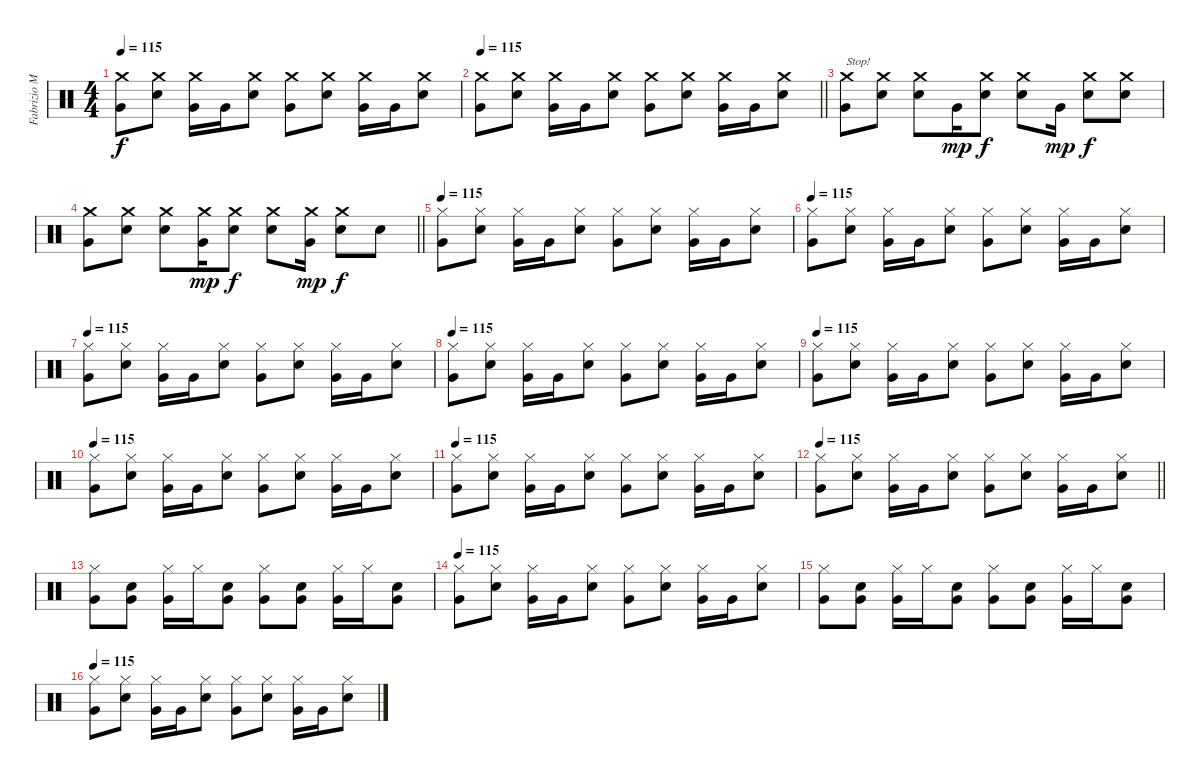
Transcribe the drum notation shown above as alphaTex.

\track ("Fabrizio Moretti" "Fabrizio M") {instrument percussion}
\staff {score}
\articulation defaults
\ts (4 4)
\tempo 115
\clef neutral
\ks c
("Very Low Tom (hit)" "Crash medium (hit)").8{dy f} ("Electric Snare (hit)" "Crash medium (hit)").8 ("Very Low Tom (hit)" "Crash medium (hit)").16 "Very Low Tom (hit)".16 ("Electric Snare (hit)" "Crash medium (hit)").8 ("Very Low Tom (hit)" "Crash medium (hit)").8 ("Electric Snare (hit)" "Crash medium (hit)").8 ("Very Low Tom (hit)" "Crash medium (hit)").16 "Very Low Tom (hit)".16 ("Electric Snare (hit)" "Crash medium (hit)").8 |
\tempo 115
\barLineRight lightlight
("Very Low Tom (hit)" "Crash medium (hit)").8 ("Electric Snare (hit)" "Crash medium (hit)").8 ("Very Low Tom (hit)" "Crash medium (hit)").16 "Very Low Tom (hit)".16 ("Electric Snare (hit)" "Crash medium (hit)").8 ("Very Low Tom (hit)" "Crash medium (hit)").8 ("Electric Snare (hit)" "Crash medium (hit)").8 ("Very Low Tom (hit)" "Crash medium (hit)").16 "Very Low Tom (hit)".16 ("Electric Snare (hit)" "Crash medium (hit)").8 |
("Very Low Tom (hit)" "Crash medium (hit)").8{txt "Stop!"} ("Electric Snare (hit)" "Crash medium (hit)").8 ("Electric Snare (hit)" "Crash medium (hit)").8 "Very Low Tom (hit)".16{dy mp} ("Electric Snare (hit)" "Crash medium (hit)").8{dy f} ("Electric Snare (hit)" "Crash medium (hit)").8 "Very Low Tom (hit)".16{dy mp} ("Electric Snare (hit)" "Crash medium (hit)").8{dy f} ("Electric Snare (hit)" "Crash medium (hit)").8 |
\barLineRight lightlight
("Very Low Tom (hit)" "Crash medium (hit)").8 ("Electric Snare (hit)" "Crash medium (hit)").8 ("Electric Snare (hit)" "Crash medium (hit)").8 ("Very Low Tom (hit)" "Crash medium (hit)").16{dy mp} ("Electric Snare (hit)" "Crash medium (hit)").8{dy f} ("Electric Snare (hit)" "Crash medium (hit)").8 ("Very Low Tom (hit)" "Crash medium (hit)").16{dy mp} ("Electric Snare (hit)" "Crash medium (hit)").8{dy f} "Electric Snare (hit)".8 |
\tempo 115
("Very Low Tom (hit)" "Hi-Hat (closed)").8 ("Electric Snare (hit)" "Hi-Hat (closed)").8 ("Very Low Tom (hit)" "Hi-Hat (closed)").16 "Very Low Tom (hit)".16 ("Electric Snare (hit)" "Hi-Hat (closed)").8 ("Very Low Tom (hit)" "Hi-Hat (closed)").8 ("Electric Snare (hit)" "Hi-Hat (closed)").8 ("Very Low Tom (hit)" "Hi-Hat (closed)").16 "Very Low Tom (hit)".16 ("Electric Snare (hit)" "Hi-Hat (closed)").8 |
\tempo 115
("Very Low Tom (hit)" "Hi-Hat (closed)").8 ("Electric Snare (hit)" "Hi-Hat (closed)").8 ("Very Low Tom (hit)" "Hi-Hat (closed)").16 "Very Low Tom (hit)".16 ("Electric Snare (hit)" "Hi-Hat (closed)").8 ("Very Low Tom (hit)" "Hi-Hat (closed)").8 ("Electric Snare (hit)" "Hi-Hat (closed)").8 ("Very Low Tom (hit)" "Hi-Hat (closed)").16 "Very Low Tom (hit)".16 ("Electric Snare (hit)" "Hi-Hat (closed)").8 |
\tempo 115
("Very Low Tom (hit)" "Hi-Hat (closed)").8 ("Electric Snare (hit)" "Hi-Hat (closed)").8 ("Very Low Tom (hit)" "Hi-Hat (closed)").16 "Very Low Tom (hit)".16 ("Electric Snare (hit)" "Hi-Hat (closed)").8 ("Very Low Tom (hit)" "Hi-Hat (closed)").8 ("Electric Snare (hit)" "Hi-Hat (closed)").8 ("Very Low Tom (hit)" "Hi-Hat (closed)").16 "Very Low Tom (hit)".16 ("Electric Snare (hit)" "Hi-Hat (closed)").8 |
\tempo 115
("Very Low Tom (hit)" "Hi-Hat (closed)").8 ("Electric Snare (hit)" "Hi-Hat (closed)").8 ("Very Low Tom (hit)" "Hi-Hat (closed)").16 "Very Low Tom (hit)".16 ("Electric Snare (hit)" "Hi-Hat (closed)").8 ("Very Low Tom (hit)" "Hi-Hat (closed)").8 ("Electric Snare (hit)" "Hi-Hat (closed)").8 ("Very Low Tom (hit)" "Hi-Hat (closed)").16 "Very Low Tom (hit)".16 ("Electric Snare (hit)" "Hi-Hat (closed)").8 |
\tempo 115
("Very Low Tom (hit)" "Hi-Hat (closed)").8 ("Electric Snare (hit)" "Hi-Hat (closed)").8 ("Very Low Tom (hit)" "Hi-Hat (closed)").16 "Very Low Tom (hit)".16 ("Electric Snare (hit)" "Hi-Hat (closed)").8 ("Very Low Tom (hit)" "Hi-Hat (closed)").8 ("Electric Snare (hit)" "Hi-Hat (closed)").8 ("Very Low Tom (hit)" "Hi-Hat (closed)").16 "Very Low Tom (hit)".16 ("Electric Snare (hit)" "Hi-Hat (closed)").8 |
\tempo 115
("Very Low Tom (hit)" "Hi-Hat (closed)").8 ("Electric Snare (hit)" "Hi-Hat (closed)").8 ("Very Low Tom (hit)" "Hi-Hat (closed)").16 "Very Low Tom (hit)".16 ("Electric Snare (hit)" "Hi-Hat (closed)").8 ("Very Low Tom (hit)" "Hi-Hat (closed)").8 ("Electric Snare (hit)" "Hi-Hat (closed)").8 ("Very Low Tom (hit)" "Hi-Hat (closed)").16 "Very Low Tom (hit)".16 ("Electric Snare (hit)" "Hi-Hat (closed)").8 |
\tempo 115
("Very Low Tom (hit)" "Hi-Hat (closed)").8 ("Electric Snare (hit)" "Hi-Hat (closed)").8 ("Very Low Tom (hit)" "Hi-Hat (closed)").16 "Very Low Tom (hit)".16 ("Electric Snare (hit)" "Hi-Hat (closed)").8 ("Very Low Tom (hit)" "Hi-Hat (closed)").8 ("Electric Snare (hit)" "Hi-Hat (closed)").8 ("Very Low Tom (hit)" "Hi-Hat (closed)").16 "Very Low Tom (hit)".16 ("Electric Snare (hit)" "Hi-Hat (closed)").8 |
\tempo 115
\barLineRight lightlight
("Very Low Tom (hit)" "Hi-Hat (closed)").8 ("Electric Snare (hit)" "Hi-Hat (closed)").8 ("Very Low Tom (hit)" "Hi-Hat (closed)").16 "Very Low Tom (hit)".16 ("Electric Snare (hit)" "Hi-Hat (closed)").8 ("Very Low Tom (hit)" "Hi-Hat (closed)").8 ("Electric Snare (hit)" "Hi-Hat (closed)").8 ("Very Low Tom (hit)" "Hi-Hat (closed)").16 "Very Low Tom (hit)".16 ("Electric Snare (hit)" "Hi-Hat (closed)").8 |
("Very Low Tom (hit)" "Hi-Hat (closed)").8 ("Very Low Tom (hit)" "Electric Snare (hit)").8 ("Very Low Tom (hit)" "Hi-Hat (closed)").16 "Hi-Hat (closed)".16 ("Very Low Tom (hit)" "Electric Snare (hit)").8 ("Very Low Tom (hit)" "Hi-Hat (closed)").8 ("Very Low Tom (hit)" "Electric Snare (hit)").8 ("Very Low Tom (hit)" "Hi-Hat (closed)").16 "Hi-Hat (closed)".16 ("Very Low Tom (hit)" "Electric Snare (hit)").8 |
\tempo 115
("Very Low Tom (hit)" "Hi-Hat (closed)").8 ("Electric Snare (hit)" "Hi-Hat (closed)").8 ("Very Low Tom (hit)" "Hi-Hat (closed)").16 "Very Low Tom (hit)".16 ("Electric Snare (hit)" "Hi-Hat (closed)").8 ("Very Low Tom (hit)" "Hi-Hat (closed)").8 ("Electric Snare (hit)" "Hi-Hat (closed)").8 ("Very Low Tom (hit)" "Hi-Hat (closed)").16 "Very Low Tom (hit)".16 ("Electric Snare (hit)" "Hi-Hat (closed)").8 |
("Very Low Tom (hit)" "Hi-Hat (closed)").8 ("Very Low Tom (hit)" "Electric Snare (hit)").8 ("Very Low Tom (hit)" "Hi-Hat (closed)").16 "Hi-Hat (closed)".16 ("Very Low Tom (hit)" "Electric Snare (hit)").8 ("Very Low Tom (hit)" "Hi-Hat (closed)").8 ("Very Low Tom (hit)" "Electric Snare (hit)").8 ("Very Low Tom (hit)" "Hi-Hat (closed)").16 "Hi-Hat (closed)".16 ("Very Low Tom (hit)" "Electric Snare (hit)").8 |
\tempo 115
("Very Low Tom (hit)" "Hi-Hat (closed)").8 ("Electric Snare (hit)" "Hi-Hat (closed)").8 ("Very Low Tom (hit)" "Hi-Hat (closed)").16 "Very Low Tom (hit)".16 ("Electric Snare (hit)" "Hi-Hat (closed)").8 ("Very Low Tom (hit)" "Hi-Hat (closed)").8 ("Electric Snare (hit)" "Hi-Hat (closed)").8 ("Very Low Tom (hit)" "Hi-Hat (closed)").16 "Very Low Tom (hit)".16 ("Electric Snare (hit)" "Hi-Hat (closed)").8
